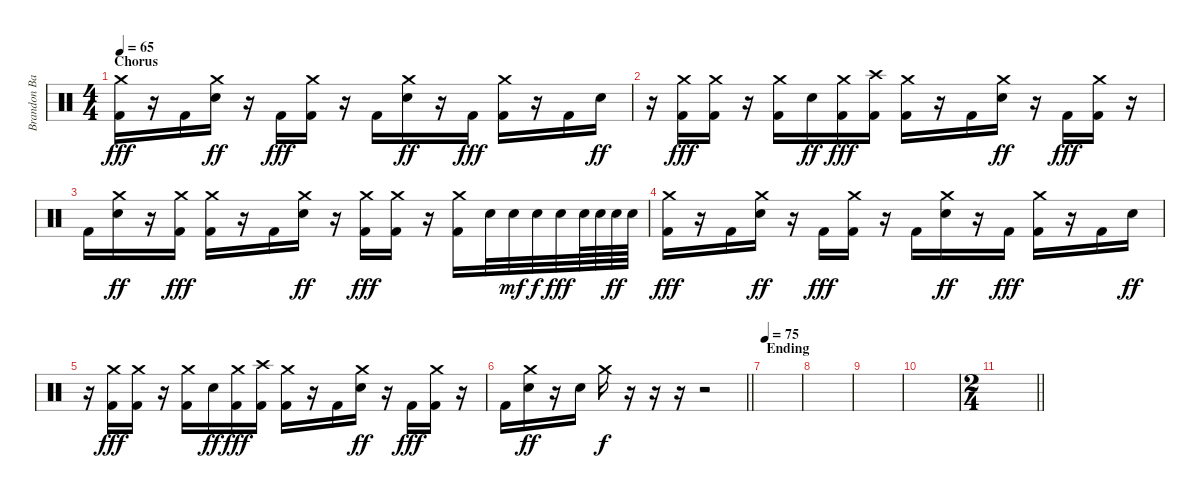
\track ("Brandon Barnes" "Brandon Ba") {instrument percussion}
\staff {score}
\articulation defaults
\ts (4 4)
\section ("" "Chorus")
\tempo 65
\clef neutral
\ks c
("Crash medium (hit)" "Kick (hit) 2").16{dy fff} r.16 "Kick (hit) 2".16 ("Crash medium (hit)" "Electric Snare (hit)").16{dy ff} r.16 "Kick (hit) 2".16{dy fff} ("Crash medium (hit)" "Kick (hit) 2").16 r.16 "Kick (hit) 2".16 ("Crash medium (hit)" "Electric Snare (hit)").16{dy ff} r.16 "Kick (hit) 2".16{dy fff} ("Crash medium (hit)" "Kick (hit) 2").16 r.16 "Kick (hit) 2".16 "Electric Snare (hit)".16{dy ff} |
r.16 ("Crash medium (hit)" "Kick (hit) 2").16{dy fff} ("Crash medium (hit)" "Kick (hit) 2").16 r.16 ("Crash medium (hit)" "Kick (hit) 2").16 "Electric Snare (hit)".16{dy ff} ("Crash medium (hit)" "Kick (hit) 2").16{dy fff} ("Crash high (hit)" "Kick (hit) 2").16 ("Crash medium (hit)" "Kick (hit) 2").16 r.16 "Kick (hit) 2".16 ("Crash medium (hit)" "Electric Snare (hit)").16{dy ff} r.16 "Kick (hit) 2".16{dy fff} ("Crash medium (hit)" "Kick (hit) 2").16 r.16 |
"Kick (hit) 2".16 ("Crash medium (hit)" "Electric Snare (hit)").16{dy ff} r.16 ("Crash medium (hit)" "Kick (hit) 2").16{dy fff} ("Crash medium (hit)" "Kick (hit) 2").16 r.16 "Kick (hit) 2".16 ("Crash medium (hit)" "Electric Snare (hit)").16{dy ff} r.16 ("Crash medium (hit)" "Kick (hit) 2").16{dy fff} ("Crash medium (hit)" "Kick (hit) 2").16 r.16 ("Crash medium (hit)" "Kick (hit) 2").16 "Electric Snare (hit)".32 "Electric Snare (hit)".32{dy mf} "Electric Snare (hit)".32{dy f} "Electric Snare (hit)".32{dy fff} "Electric Snare (hit)".64 "Electric Snare (hit)".64 "Electric Snare (hit)".64{dy ff} "Electric Snare (hit)".64 |
("Crash medium (hit)" "Kick (hit) 2").16{dy fff} r.16 "Kick (hit) 2".16 ("Crash medium (hit)" "Electric Snare (hit)").16{dy ff} r.16 "Kick (hit) 2".16{dy fff} ("Crash medium (hit)" "Kick (hit) 2").16 r.16 "Kick (hit) 2".16 ("Crash medium (hit)" "Electric Snare (hit)").16{dy ff} r.16 "Kick (hit) 2".16{dy fff} ("Crash medium (hit)" "Kick (hit) 2").16 r.16 "Kick (hit) 2".16 "Electric Snare (hit)".16{dy ff} |
r.16 ("Crash medium (hit)" "Kick (hit) 2").16{dy fff} ("Crash medium (hit)" "Kick (hit) 2").16 r.16 ("Crash medium (hit)" "Kick (hit) 2").16 "Electric Snare (hit)".16{dy ff} ("Crash medium (hit)" "Kick (hit) 2").16{dy fff} ("Crash high (hit)" "Kick (hit) 2").16 ("Crash medium (hit)" "Kick (hit) 2").16 r.16 "Kick (hit) 2".16 ("Crash medium (hit)" "Electric Snare (hit)").16{dy ff} r.16 "Kick (hit) 2".16{dy fff} ("Crash medium (hit)" "Kick (hit) 2").16 r.16 |
\barLineRight lightlight "Kick (hit) 2".16
("Crash medium (hit)" "Electric Snare (hit)").16{dy ff} r.16 "Electric Snare (hit)".16 "Crash medium (hit)".16{dy f} r.16 r.16 r.16 r.2 |
\section ("" "Ending")
\tempo 75
|
|
|
|
\ts (2 4)
\barLineRight lightlight
